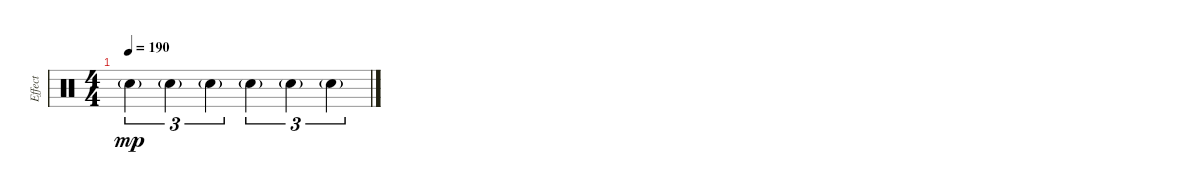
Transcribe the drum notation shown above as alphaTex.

\track ("Effect" "Effect") {instrument percussion}
\staff {score}
\articulation defaults
\ts (4 4)
\tempo 190
\clef neutral
\ks c "Electric Snare (hit)"{g}.4{tu (3 2) dy mp} "Electric Snare (hit)"{g}.4{tu (3 2)} "Electric Snare (hit)"{g}.4{tu (3 2)} "Electric Snare (hit)"{g}.4{tu (3 2)} "Electric Snare (hit)"{g}.4{tu (3 2)} "Electric Snare (hit)"{g}.4{tu (3 2)}
